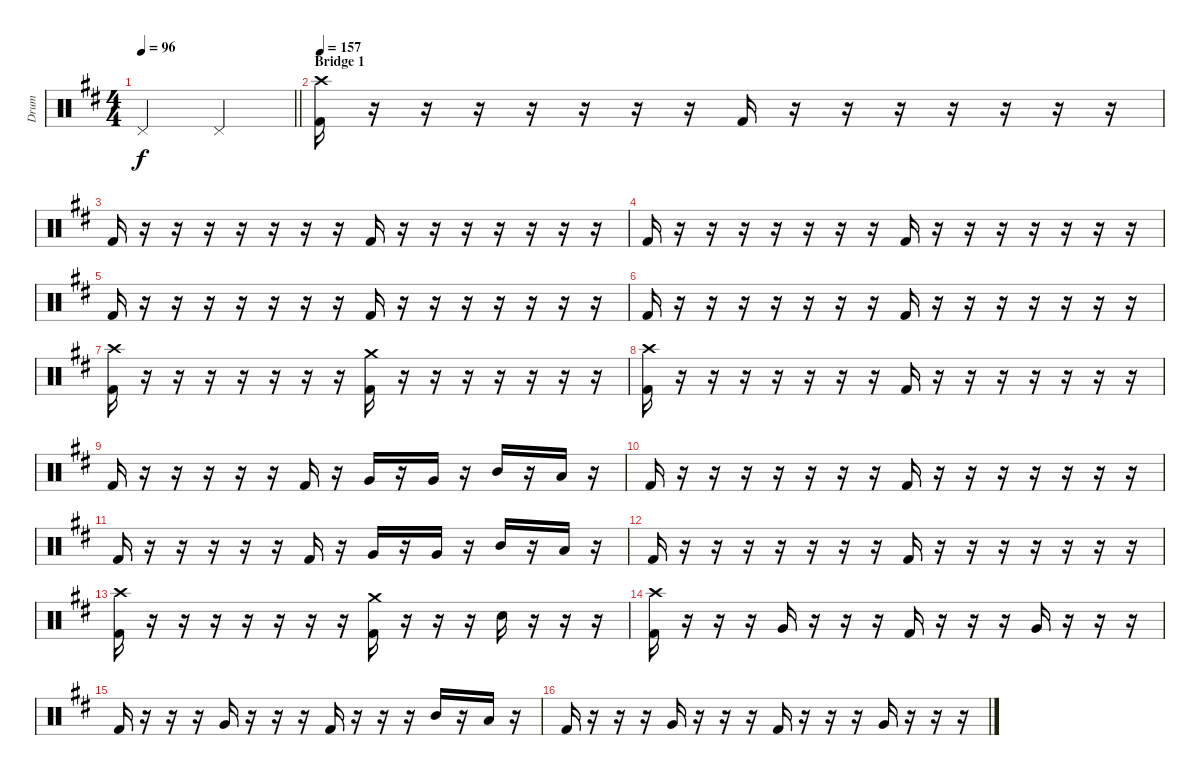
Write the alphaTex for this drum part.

\track ("Drum" "Drum") {instrument percussion}
\staff {score}
\articulation defaults
\ts (4 4)
\tempo 96
\clef neutral
\barLineRight lightlight
\ks d "Pedal Hi-Hat (hit)".2{dy f} "Pedal Hi-Hat (hit)".2
|
\section ("" "Bridge 1")
\tempo 157
("Kick (hit) 2" "Crash high (hit)").16 r.16 r.16 r.16 r.16 r.16 r.16 r.16 "Kick (hit) 2".16 r.16 r.16 r.16 r.16 r.16 r.16 r.16 |
"Kick (hit) 2".16 r.16 r.16 r.16 r.16 r.16 r.16 r.16 "Kick (hit) 2".16 r.16 r.16 r.16 r.16 r.16 r.16 r.16 |
"Kick (hit) 2".16 r.16 r.16 r.16 r.16 r.16 r.16 r.16 "Kick (hit) 2".16 r.16 r.16 r.16 r.16 r.16 r.16 r.16 |
"Kick (hit) 2".16 r.16 r.16 r.16 r.16 r.16 r.16 r.16 "Kick (hit) 2".16 r.16 r.16 r.16 r.16 r.16 r.16 r.16 |
"Kick (hit) 2".16 r.16 r.16 r.16 r.16 r.16 r.16 r.16 "Kick (hit) 2".16 r.16 r.16 r.16 r.16 r.16 r.16 r.16 |
("Kick (hit) 2" "Crash high (hit)").16 r.16 r.16 r.16 r.16 r.16 r.16 r.16 ("Kick (hit) 2" "Crash medium (hit)").16 r.16 r.16 r.16 r.16 r.16 r.16 r.16 |
("Kick (hit) 2" "Crash high (hit)").16 r.16 r.16 r.16 r.16 r.16 r.16 r.16 "Kick (hit) 2".16 r.16 r.16 r.16 r.16 r.16 r.16 r.16 |
"Kick (hit) 2".16 r.16 r.16 r.16 r.16 r.16 "Kick (hit) 2".16 r.16 "Very Low Tom (hit)".16 r.16 "Very Low Tom (hit)".16 r.16 "Mid Tom (hit)".16 r.16 "Low Tom (hit)".16 r.16 |
"Kick (hit) 2".16 r.16 r.16 r.16 r.16 r.16 r.16 r.16 "Kick (hit) 2".16 r.16 r.16 r.16 r.16 r.16 r.16 r.16 |
"Kick (hit) 2".16 r.16 r.16 r.16 r.16 r.16 "Kick (hit) 2".16 r.16 "Very Low Tom (hit)".16 r.16 "Very Low Tom (hit)".16 r.16 "Mid Tom (hit)".16 r.16 "Low Tom (hit)".16 r.16 |
"Kick (hit) 2".16 r.16 r.16 r.16 r.16 r.16 r.16 r.16 "Kick (hit) 2".16 r.16 r.16 r.16 r.16 r.16 r.16 r.16 |
("Kick (hit) 2" "Crash high (hit)").16 r.16 r.16 r.16 r.16 r.16 r.16 r.16 ("Kick (hit) 2" "Crash medium (hit)").16 r.16 r.16 r.16 "Electric Snare (hit)".16 r.16 r.16 r.16 |
("Kick (hit) 2" "Crash high (hit)").16 r.16 r.16 r.16 "Very Low Tom (hit)".16 r.16 r.16 r.16 "Kick (hit) 2".16 r.16 r.16 r.16 "Very Low Tom (hit)".16 r.16 r.16 r.16 |
"Kick (hit) 2".16 r.16 r.16 r.16 "Very Low Tom (hit)".16 r.16 r.16 r.16 "Kick (hit) 2".16 r.16 r.16 r.16 "Mid Tom (hit)".16 r.16 "Low Tom (hit)".16 r.16 |
"Kick (hit) 2".16 r.16 r.16 r.16 "Very Low Tom (hit)".16 r.16 r.16 r.16 "Kick (hit) 2".16 r.16 r.16 r.16 "Very Low Tom (hit)".16 r.16 r.16 r.16
